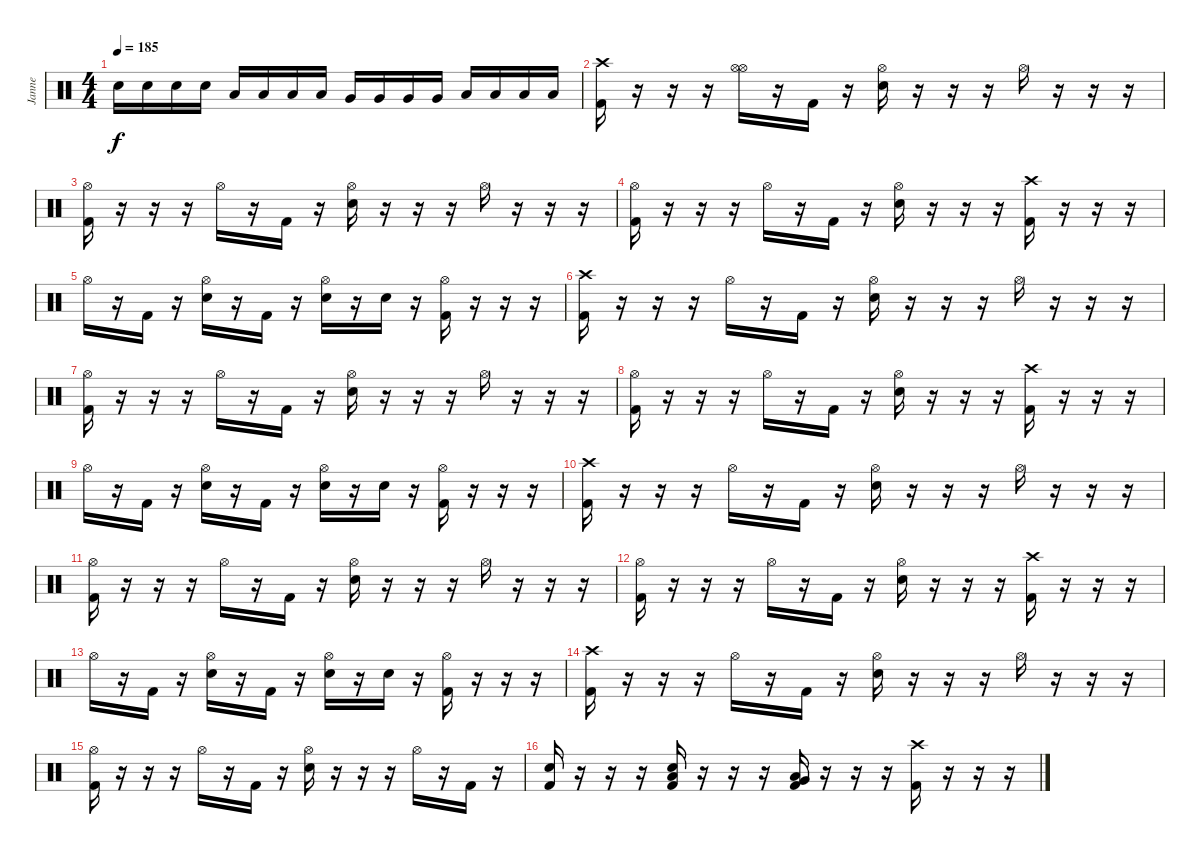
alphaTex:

\track ("Janne" "Janne") {instrument percussion}
\staff {score}
\articulation defaults
\ts (4 4)
\tempo 185
\clef neutral
\ks c "Electric Snare (hit)".16{dy f} "Electric Snare (hit)".16 "Electric Snare (hit)".16 "Electric Snare (hit)".16 "Low Tom (hit)".16 "Low Tom (hit)".16 "Low Tom (hit)".16 "Low Tom (hit)".16 "Very Low Tom (hit)".16 "Very Low Tom (hit)".16 "Very Low Tom (hit)".16 "Very Low Tom (hit)".16 "Low Floor Tom (hit)".16 "Low Floor Tom (hit)".16 "Low Floor Tom (hit)".16 "Low Floor Tom (hit)".16
|
("Crash high (hit)" "Kick (hit) 2").16 r.16 r.16 r.16 ("Hi-Hat (open)" "Hi-Hat (open)").16 r.16 "Kick (hit) 2".16 r.16 ("Hi-Hat (open)" "Electric Snare (hit)").16 r.16 r.16 r.16 "Hi-Hat (open)".16 r.16 r.16 r.16 |
("Hi-Hat (open)" "Kick (hit) 2").16 r.16 r.16 r.16 "Hi-Hat (open)".16 r.16 "Kick (hit) 2".16 r.16 ("Hi-Hat (open)" "Electric Snare (hit)").16 r.16 r.16 r.16 "Hi-Hat (open)".16 r.16 r.16 r.16 |
("Hi-Hat (open)" "Kick (hit) 2").16 r.16 r.16 r.16 "Hi-Hat (open)".16 r.16 "Kick (hit) 2".16 r.16 ("Hi-Hat (open)" "Electric Snare (hit)").16 r.16 r.16 r.16 ("Crash high (hit)" "Kick (hit) 2").16 r.16 r.16 r.16 |
"Hi-Hat (open)".16 r.16 "Kick (hit) 2".16 r.16 ("Hi-Hat (open)" "Electric Snare (hit)").16 r.16 "Kick (hit) 2".16 r.16 ("Hi-Hat (open)" "Electric Snare (hit)").16 r.16 "Electric Snare (hit)".16 r.16 ("Hi-Hat (open)" "Kick (hit) 2").16 r.16 r.16 r.16 |
("Crash high (hit)" "Kick (hit) 2").16 r.16 r.16 r.16 "Hi-Hat (open)".16 r.16 "Kick (hit) 2".16 r.16 ("Hi-Hat (open)" "Electric Snare (hit)").16 r.16 r.16 r.16 "Hi-Hat (open)".16 r.16 r.16 r.16 |
("Hi-Hat (open)" "Kick (hit) 2").16 r.16 r.16 r.16 "Hi-Hat (open)".16 r.16 "Kick (hit) 2".16 r.16 ("Hi-Hat (open)" "Electric Snare (hit)").16 r.16 r.16 r.16 "Hi-Hat (open)".16 r.16 r.16 r.16 |
("Hi-Hat (open)" "Kick (hit) 2").16 r.16 r.16 r.16 "Hi-Hat (open)".16 r.16 "Kick (hit) 2".16 r.16 ("Hi-Hat (open)" "Electric Snare (hit)").16 r.16 r.16 r.16 ("Crash high (hit)" "Kick (hit) 2").16 r.16 r.16 r.16 |
"Hi-Hat (open)".16 r.16 "Kick (hit) 2".16 r.16 ("Hi-Hat (open)" "Electric Snare (hit)").16 r.16 "Kick (hit) 2".16 r.16 ("Hi-Hat (open)" "Electric Snare (hit)").16 r.16 "Electric Snare (hit)".16 r.16 ("Hi-Hat (open)" "Kick (hit) 2").16 r.16 r.16 r.16 |
("Crash high (hit)" "Kick (hit) 2").16 r.16 r.16 r.16 "Hi-Hat (open)".16 r.16 "Kick (hit) 2".16 r.16 ("Hi-Hat (open)" "Electric Snare (hit)").16 r.16 r.16 r.16 "Hi-Hat (open)".16 r.16 r.16 r.16 |
("Hi-Hat (open)" "Kick (hit) 2").16 r.16 r.16 r.16 "Hi-Hat (open)".16 r.16 "Kick (hit) 2".16 r.16 ("Hi-Hat (open)" "Electric Snare (hit)").16 r.16 r.16 r.16 "Hi-Hat (open)".16 r.16 r.16 r.16 |
("Hi-Hat (open)" "Kick (hit) 2").16 r.16 r.16 r.16 "Hi-Hat (open)".16 r.16 "Kick (hit) 2".16 r.16 ("Hi-Hat (open)" "Electric Snare (hit)").16 r.16 r.16 r.16 ("Crash high (hit)" "Kick (hit) 2").16 r.16 r.16 r.16 |
"Hi-Hat (open)".16 r.16 "Kick (hit) 2".16 r.16 ("Hi-Hat (open)" "Electric Snare (hit)").16 r.16 "Kick (hit) 2".16 r.16 ("Hi-Hat (open)" "Electric Snare (hit)").16 r.16 "Electric Snare (hit)".16 r.16 ("Hi-Hat (open)" "Kick (hit) 2").16 r.16 r.16 r.16 |
("Crash high (hit)" "Kick (hit) 2").16 r.16 r.16 r.16 "Hi-Hat (open)".16 r.16 "Kick (hit) 2".16 r.16 ("Hi-Hat (open)" "Electric Snare (hit)").16 r.16 r.16 r.16 "Hi-Hat (open)".16 r.16 r.16 r.16 |
("Hi-Hat (open)" "Kick (hit) 2").16 r.16 r.16 r.16 "Hi-Hat (open)".16 r.16 "Kick (hit) 2".16 r.16 ("Hi-Hat (open)" "Electric Snare (hit)").16 r.16 r.16 r.16 "Hi-Hat (open)".16 r.16 "Kick (hit) 2".16 r.16 |
("Electric Snare (hit)" "Kick (hit) 2").16 r.16 r.16 r.16 ("Low Tom (hit)" "Electric Snare (hit)" "Kick (hit) 2").16 r.16 r.16 r.16 ("Very Low Tom (hit)" "Low Tom (hit)" "Kick (hit) 2").16 r.16 r.16 r.16 ("Crash high (hit)" "Kick (hit) 2").16 r.16 r.16 r.16
